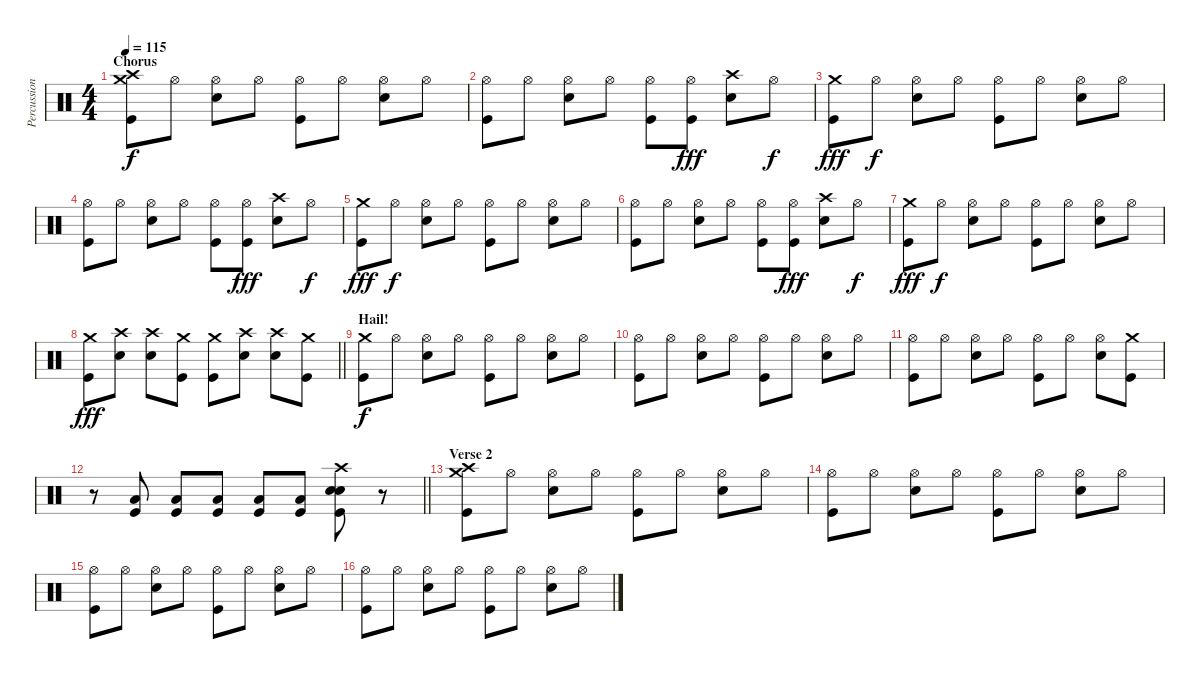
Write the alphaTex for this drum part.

\track ("Percussion" "Percussion") {instrument percussion}
\staff {score}
\articulation defaults
\ts (4 4)
\section ("" "Chorus")
\tempo 115
\clef neutral
\ks c
("Crash high (hit)" "Crash medium (hit)" "Kick (hit)").8{dy f} "Hi-Hat (open)".8 ("Hi-Hat (open)" "Electric Snare (hit)").8 "Hi-Hat (open)".8 ("Hi-Hat (open)" "Kick (hit)").8 "Hi-Hat (open)".8 ("Hi-Hat (open)" "Electric Snare (hit)").8 "Hi-Hat (open)".8 |
("Hi-Hat (open)" "Kick (hit)").8 "Hi-Hat (open)".8 ("Hi-Hat (open)" "Electric Snare (hit)").8 "Hi-Hat (open)".8 ("Hi-Hat (open)" "Kick (hit)").8 ("Hi-Hat (open)" "Kick (hit)").8{dy fff} ("Crash high (hit)" "Electric Snare (hit)").8 "Hi-Hat (open)".8{dy f} |
("Crash medium (hit)" "Kick (hit)").8{dy fff} "Hi-Hat (open)".8{dy f} ("Hi-Hat (open)" "Electric Snare (hit)").8 "Hi-Hat (open)".8 ("Hi-Hat (open)" "Kick (hit)").8 "Hi-Hat (open)".8 ("Hi-Hat (open)" "Electric Snare (hit)").8 "Hi-Hat (open)".8 |
("Hi-Hat (open)" "Kick (hit)").8 "Hi-Hat (open)".8 ("Hi-Hat (open)" "Electric Snare (hit)").8 "Hi-Hat (open)".8 ("Hi-Hat (open)" "Kick (hit)").8 ("Hi-Hat (open)" "Kick (hit)").8{dy fff} ("Crash high (hit)" "Electric Snare (hit)").8 "Hi-Hat (open)".8{dy f} |
("Crash medium (hit)" "Kick (hit)").8{dy fff} "Hi-Hat (open)".8{dy f} ("Hi-Hat (open)" "Electric Snare (hit)").8 "Hi-Hat (open)".8 ("Hi-Hat (open)" "Kick (hit)").8 "Hi-Hat (open)".8 ("Hi-Hat (open)" "Electric Snare (hit)").8 "Hi-Hat (open)".8 |
("Hi-Hat (open)" "Kick (hit)").8 "Hi-Hat (open)".8 ("Hi-Hat (open)" "Electric Snare (hit)").8 "Hi-Hat (open)".8 ("Hi-Hat (open)" "Kick (hit)").8 ("Hi-Hat (open)" "Kick (hit)").8{dy fff} ("Crash high (hit)" "Electric Snare (hit)").8 "Hi-Hat (open)".8{dy f} |
("Crash medium (hit)" "Kick (hit)").8{dy fff} "Hi-Hat (open)".8{dy f} ("Hi-Hat (open)" "Electric Snare (hit)").8 "Hi-Hat (open)".8 ("Hi-Hat (open)" "Kick (hit)").8 "Hi-Hat (open)".8 ("Hi-Hat (open)" "Electric Snare (hit)").8 "Hi-Hat (open)".8 |
\barLineRight lightlight
("Crash medium (hit)" "Kick (hit)").8{dy fff} ("Crash high (hit)" "Electric Snare (hit)").8 ("Crash high (hit)" "Electric Snare (hit)").8 ("Crash medium (hit)" "Kick (hit)").8 ("Crash medium (hit)" "Kick (hit)").8 ("Crash high (hit)" "Electric Snare (hit)").8 ("Crash high (hit)" "Electric Snare (hit)").8 ("Crash medium (hit)" "Kick (hit)").8 |
\section ("" "Hail!")
("Crash medium (hit)" "Kick (hit)").8{dy f} "Hi-Hat (open)".8 ("Hi-Hat (open)" "Electric Snare (hit)").8 "Hi-Hat (open)".8 ("Hi-Hat (open)" "Kick (hit)").8 "Hi-Hat (open)".8 ("Hi-Hat (open)" "Electric Snare (hit)").8 "Hi-Hat (open)".8 |
("Hi-Hat (open)" "Kick (hit)").8 "Hi-Hat (open)".8 ("Hi-Hat (open)" "Electric Snare (hit)").8 "Hi-Hat (open)".8 ("Hi-Hat (open)" "Kick (hit)").8 "Hi-Hat (open)".8 ("Hi-Hat (open)" "Electric Snare (hit)").8 "Hi-Hat (open)".8 |
("Hi-Hat (open)" "Kick (hit)").8 "Hi-Hat (open)".8 ("Hi-Hat (open)" "Electric Snare (hit)").8 "Hi-Hat (open)".8 ("Hi-Hat (open)" "Kick (hit)").8 "Hi-Hat (open)".8 ("Hi-Hat (open)" "Electric Snare (hit)").8 ("Crash medium (hit)" "Kick (hit)").8 |
\barLineRight lightlight
r.8 ("Kick (hit)" "Low Tom (hit)").8 ("Kick (hit)" "Low Tom (hit)").8 ("Kick (hit)" "Low Tom (hit)").8 ("Kick (hit)" "Low Tom (hit)").8 ("Kick (hit)" "Low Tom (hit)").8 ("Crash high (hit)" "Kick (hit)" "Snare (hit) 2" "Electric Snare (hit)").8 r.8 |
\section ("" "Verse 2")
("Crash high (hit)" "Crash medium (hit)" "Kick (hit)").8 "Hi-Hat (open)".8 ("Hi-Hat (open)" "Electric Snare (hit)").8 "Hi-Hat (open)".8 ("Hi-Hat (open)" "Kick (hit)").8 "Hi-Hat (open)".8 ("Hi-Hat (open)" "Electric Snare (hit)").8 "Hi-Hat (open)".8 |
("Hi-Hat (open)" "Kick (hit)").8 "Hi-Hat (open)".8 ("Hi-Hat (open)" "Electric Snare (hit)").8 "Hi-Hat (open)".8 ("Hi-Hat (open)" "Kick (hit)").8 "Hi-Hat (open)".8 ("Hi-Hat (open)" "Electric Snare (hit)").8 "Hi-Hat (open)".8 |
("Hi-Hat (open)" "Kick (hit)").8 "Hi-Hat (open)".8 ("Hi-Hat (open)" "Electric Snare (hit)").8 "Hi-Hat (open)".8 ("Hi-Hat (open)" "Kick (hit)").8 "Hi-Hat (open)".8 ("Hi-Hat (open)" "Electric Snare (hit)").8 "Hi-Hat (open)".8 |
("Hi-Hat (open)" "Kick (hit)").8 "Hi-Hat (open)".8 ("Hi-Hat (open)" "Electric Snare (hit)").8 "Hi-Hat (open)".8 ("Hi-Hat (open)" "Kick (hit)").8 "Hi-Hat (open)".8 ("Hi-Hat (open)" "Electric Snare (hit)").8 "Hi-Hat (open)".8
